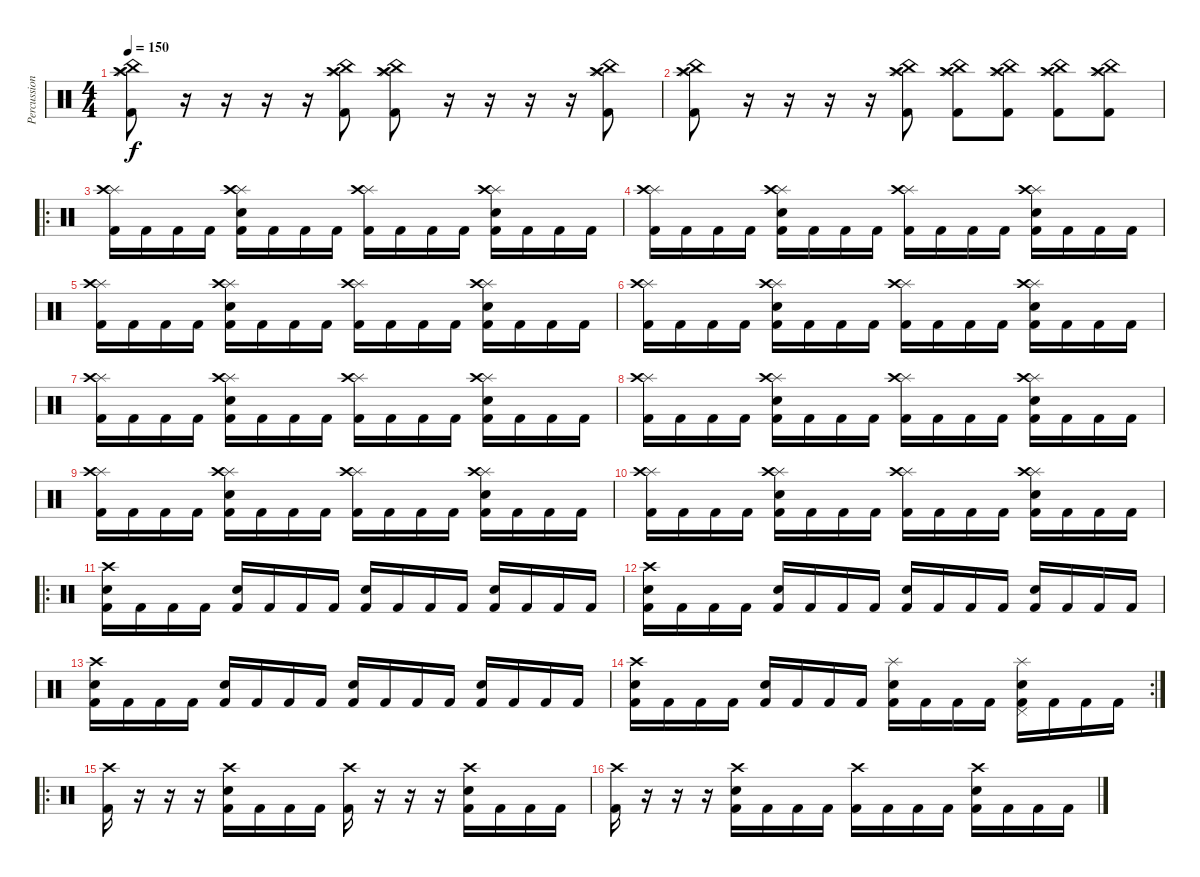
\track ("Percussion" "Percussion") {instrument percussion}
\staff {score}
\articulation defaults
\ts (4 4)
\tempo 150
\clef neutral
\ks c
("China (hit)" "Crash high (hit)" "Splash (hit)" "Kick (hit) 2").8{dy f} r.16 r.16 r.16 r.16 ("China (hit)" "Crash high (hit)" "Splash (hit)" "Kick (hit) 2").8 ("China (hit)" "Crash high (hit)" "Splash (hit)" "Kick (hit) 2").8 r.16 r.16 r.16 r.16 ("China (hit)" "Crash high (hit)" "Splash (hit)" "Kick (hit) 2").8 |
("China (hit)" "Crash high (hit)" "Splash (hit)" "Kick (hit) 2").8 r.16 r.16 r.16 r.16 ("China (hit)" "Crash high (hit)" "Splash (hit)" "Kick (hit) 2").8 ("China (hit)" "Crash high (hit)" "Splash (hit)" "Kick (hit) 2").8 ("China (hit)" "Crash high (hit)" "Splash (hit)" "Kick (hit) 2").8 ("China (hit)" "Crash high (hit)" "Splash (hit)" "Kick (hit) 2").8 ("China (hit)" "Crash high (hit)" "Splash (hit)" "Kick (hit) 2").8 |
\ro
("Splash (hit)" "Crash high (hit)" "Kick (hit) 2").16 "Kick (hit) 2".16 "Kick (hit) 2".16 "Kick (hit) 2".16 ("Splash (hit)" "Crash high (hit)" "Electric Snare (hit)" "Kick (hit) 2").16 "Kick (hit) 2".16 "Kick (hit) 2".16 "Kick (hit) 2".16 ("Splash (hit)" "Crash high (hit)" "Kick (hit) 2").16 "Kick (hit) 2".16 "Kick (hit) 2".16 "Kick (hit) 2".16 ("Splash (hit)" "Crash high (hit)" "Electric Snare (hit)" "Kick (hit) 2").16 "Kick (hit) 2".16 "Kick (hit) 2".16 "Kick (hit) 2".16 |
("Splash (hit)" "Crash high (hit)" "Kick (hit) 2").16 "Kick (hit) 2".16 "Kick (hit) 2".16 "Kick (hit) 2".16 ("Splash (hit)" "Crash high (hit)" "Electric Snare (hit)" "Kick (hit) 2").16 "Kick (hit) 2".16 "Kick (hit) 2".16 "Kick (hit) 2".16 ("Splash (hit)" "Crash high (hit)" "Kick (hit) 2").16 "Kick (hit) 2".16 "Kick (hit) 2".16 "Kick (hit) 2".16 ("Splash (hit)" "Crash high (hit)" "Electric Snare (hit)" "Kick (hit) 2").16 "Kick (hit) 2".16 "Kick (hit) 2".16 "Kick (hit) 2".16 |
("Splash (hit)" "Crash high (hit)" "Kick (hit) 2").16 "Kick (hit) 2".16 "Kick (hit) 2".16 "Kick (hit) 2".16 ("Splash (hit)" "Crash high (hit)" "Electric Snare (hit)" "Kick (hit) 2").16 "Kick (hit) 2".16 "Kick (hit) 2".16 "Kick (hit) 2".16 ("Splash (hit)" "Crash high (hit)" "Kick (hit) 2").16 "Kick (hit) 2".16 "Kick (hit) 2".16 "Kick (hit) 2".16 ("Splash (hit)" "Crash high (hit)" "Electric Snare (hit)" "Kick (hit) 2").16 "Kick (hit) 2".16 "Kick (hit) 2".16 "Kick (hit) 2".16 |
("Splash (hit)" "Crash high (hit)" "Kick (hit) 2").16 "Kick (hit) 2".16 "Kick (hit) 2".16 "Kick (hit) 2".16 ("Splash (hit)" "Crash high (hit)" "Electric Snare (hit)" "Kick (hit) 2").16 "Kick (hit) 2".16 "Kick (hit) 2".16 "Kick (hit) 2".16 ("Splash (hit)" "Crash high (hit)" "Kick (hit) 2").16 "Kick (hit) 2".16 "Kick (hit) 2".16 "Kick (hit) 2".16 ("Splash (hit)" "Crash high (hit)" "Electric Snare (hit)" "Kick (hit) 2").16 "Kick (hit) 2".16 "Kick (hit) 2".16 "Kick (hit) 2".16 |
("Splash (hit)" "Crash high (hit)" "Kick (hit) 2").16 "Kick (hit) 2".16 "Kick (hit) 2".16 "Kick (hit) 2".16 ("Splash (hit)" "Crash high (hit)" "Electric Snare (hit)" "Kick (hit) 2").16 "Kick (hit) 2".16 "Kick (hit) 2".16 "Kick (hit) 2".16 ("Splash (hit)" "Crash high (hit)" "Kick (hit) 2").16 "Kick (hit) 2".16 "Kick (hit) 2".16 "Kick (hit) 2".16 ("Splash (hit)" "Crash high (hit)" "Electric Snare (hit)" "Kick (hit) 2").16 "Kick (hit) 2".16 "Kick (hit) 2".16 "Kick (hit) 2".16 |
("Splash (hit)" "Crash high (hit)" "Kick (hit) 2").16 "Kick (hit) 2".16 "Kick (hit) 2".16 "Kick (hit) 2".16 ("Splash (hit)" "Crash high (hit)" "Electric Snare (hit)" "Kick (hit) 2").16 "Kick (hit) 2".16 "Kick (hit) 2".16 "Kick (hit) 2".16 ("Splash (hit)" "Crash high (hit)" "Kick (hit) 2").16 "Kick (hit) 2".16 "Kick (hit) 2".16 "Kick (hit) 2".16 ("Splash (hit)" "Crash high (hit)" "Electric Snare (hit)" "Kick (hit) 2").16 "Kick (hit) 2".16 "Kick (hit) 2".16 "Kick (hit) 2".16 |
("Splash (hit)" "Crash high (hit)" "Kick (hit) 2").16 "Kick (hit) 2".16 "Kick (hit) 2".16 "Kick (hit) 2".16 ("Splash (hit)" "Crash high (hit)" "Electric Snare (hit)" "Kick (hit) 2").16 "Kick (hit) 2".16 "Kick (hit) 2".16 "Kick (hit) 2".16 ("Splash (hit)" "Crash high (hit)" "Kick (hit) 2").16 "Kick (hit) 2".16 "Kick (hit) 2".16 "Kick (hit) 2".16 ("Splash (hit)" "Crash high (hit)" "Electric Snare (hit)" "Kick (hit) 2").16 "Kick (hit) 2".16 "Kick (hit) 2".16 "Kick (hit) 2".16 |
("Splash (hit)" "Crash high (hit)" "Kick (hit) 2").16 "Kick (hit) 2".16 "Kick (hit) 2".16 "Kick (hit) 2".16 ("Splash (hit)" "Crash high (hit)" "Electric Snare (hit)" "Kick (hit) 2").16 "Kick (hit) 2".16 "Kick (hit) 2".16 "Kick (hit) 2".16 ("Splash (hit)" "Crash high (hit)" "Kick (hit) 2").16 "Kick (hit) 2".16 "Kick (hit) 2".16 "Kick (hit) 2".16 ("Splash (hit)" "Crash high (hit)" "Electric Snare (hit)" "Kick (hit) 2").16 "Kick (hit) 2".16 "Kick (hit) 2".16 "Kick (hit) 2".16 |
\ro
("Crash high (hit)" "Electric Snare (hit)" "Kick (hit) 2").16 "Kick (hit) 2".16 "Kick (hit) 2".16 "Kick (hit) 2".16 ("Electric Snare (hit)" "Kick (hit) 2").16 "Kick (hit) 2".16 "Kick (hit) 2".16 "Kick (hit) 2".16 ("Electric Snare (hit)" "Kick (hit) 2").16 "Kick (hit) 2".16 "Kick (hit) 2".16 "Kick (hit) 2".16 ("Electric Snare (hit)" "Kick (hit) 2").16 "Kick (hit) 2".16 "Kick (hit) 2".16 "Kick (hit) 2".16 |
("Crash high (hit)" "Electric Snare (hit)" "Kick (hit) 2").16 "Kick (hit) 2".16 "Kick (hit) 2".16 "Kick (hit) 2".16 ("Electric Snare (hit)" "Kick (hit) 2").16 "Kick (hit) 2".16 "Kick (hit) 2".16 "Kick (hit) 2".16 ("Electric Snare (hit)" "Kick (hit) 2").16 "Kick (hit) 2".16 "Kick (hit) 2".16 "Kick (hit) 2".16 ("Electric Snare (hit)" "Kick (hit) 2").16 "Kick (hit) 2".16 "Kick (hit) 2".16 "Kick (hit) 2".16 |
("Crash high (hit)" "Electric Snare (hit)" "Kick (hit) 2").16 "Kick (hit) 2".16 "Kick (hit) 2".16 "Kick (hit) 2".16 ("Electric Snare (hit)" "Kick (hit) 2").16 "Kick (hit) 2".16 "Kick (hit) 2".16 "Kick (hit) 2".16 ("Electric Snare (hit)" "Kick (hit) 2").16 "Kick (hit) 2".16 "Kick (hit) 2".16 "Kick (hit) 2".16 ("Electric Snare (hit)" "Kick (hit) 2").16 "Kick (hit) 2".16 "Kick (hit) 2".16 "Kick (hit) 2".16 |
\rc 2
("Crash high (hit)" "Electric Snare (hit)" "Kick (hit) 2").16 "Kick (hit) 2".16 "Kick (hit) 2".16 "Kick (hit) 2".16 ("Electric Snare (hit)" "Kick (hit) 2").16 "Kick (hit) 2".16 "Kick (hit) 2".16 "Kick (hit) 2".16 ("Splash (hit)" "Electric Snare (hit)" "Kick (hit) 2").16 "Kick (hit) 2".16 "Kick (hit) 2".16 "Kick (hit) 2".16 ("Pedal Hi-Hat (hit)" "Splash (hit)" "Electric Snare (hit)" "Kick (hit) 2").16 "Kick (hit) 2".16 "Kick (hit) 2".16 "Kick (hit) 2".16 |
\ro
("Crash high (hit)" "Kick (hit) 2").16 r.16 r.16 r.16 ("Electric Snare (hit)" "Crash high (hit)" "Kick (hit) 2").16 "Kick (hit) 2".16 "Kick (hit) 2".16 "Kick (hit) 2".16 ("Crash high (hit)" "Kick (hit) 2").16 r.16 r.16 r.16 ("Electric Snare (hit)" "Crash high (hit)" "Kick (hit) 2").16 "Kick (hit) 2".16 "Kick (hit) 2".16 "Kick (hit) 2".16 |
("Crash high (hit)" "Kick (hit) 2").16 r.16 r.16 r.16 ("Electric Snare (hit)" "Crash high (hit)" "Kick (hit) 2").16 "Kick (hit) 2".16 "Kick (hit) 2".16 "Kick (hit) 2".16 ("Crash high (hit)" "Kick (hit) 2").16 "Kick (hit) 2".16 "Kick (hit) 2".16 "Kick (hit) 2".16 ("Electric Snare (hit)" "Crash high (hit)" "Kick (hit) 2").16 "Kick (hit) 2".16 "Kick (hit) 2".16 "Kick (hit) 2".16
